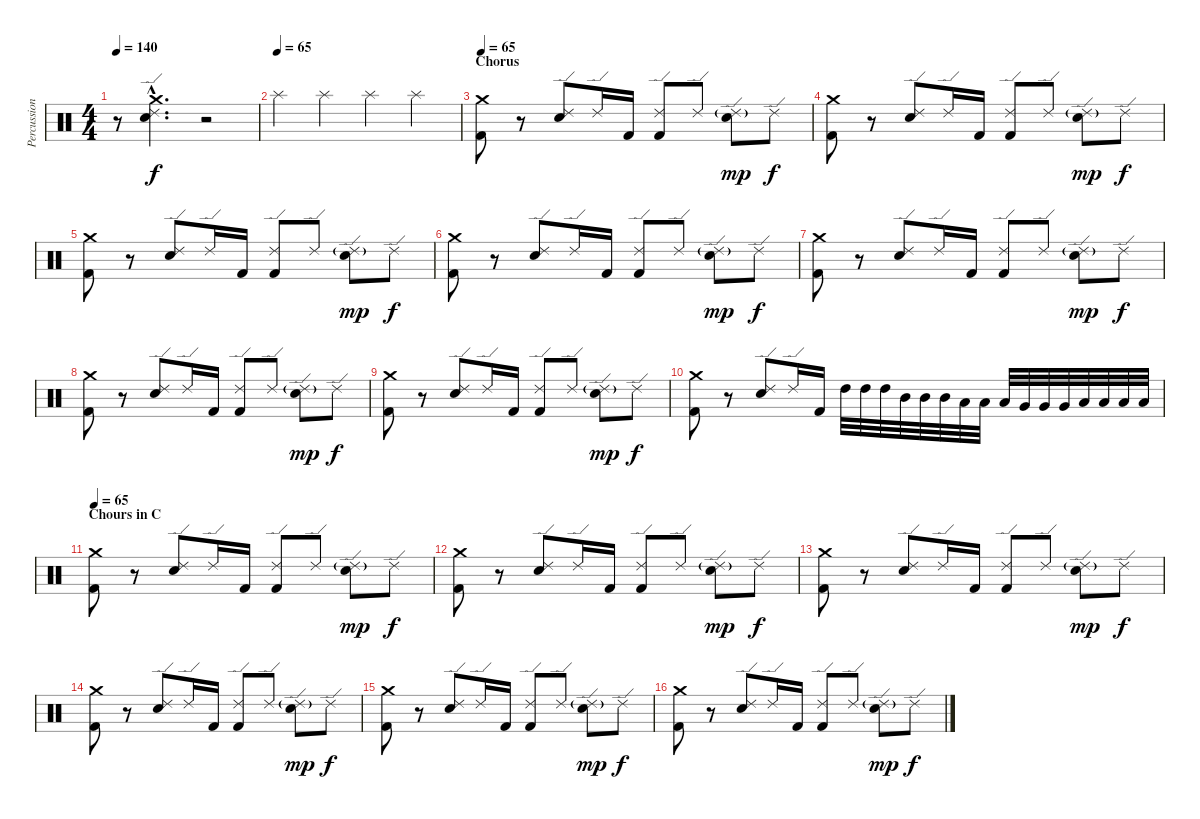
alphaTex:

\track ("Percussion" "Percussion") {instrument percussion}
\staff {score}
\articulation defaults
\ts (4 4)
\tempo 140
\clef neutral
\ks c
r.8{dy f} ("Crash medium (hit)"{hac} "Ride (edge) 2"{hac} "Snare (hit) 2"{hac}).4{d} r.2 |
\tempo (65)
"Splash (hit)".4 "Splash (hit)".4 "Splash (hit)".4 "Splash (hit)".4 |
\section ("" "Chorus")
\tempo 65
("Crash medium (hit)" "Kick (hit) 2").8 r.8 ("Ride (edge) 2" "Snare (hit) 2").8 "Ride (edge) 2".16 "Kick (hit) 2".16 ("Ride (edge) 2" "Kick (hit) 2").8 "Ride (edge) 2".8 ("Ride (edge) 2"{g} "Snare (hit) 2").8{dy mp} "Ride (edge) 2".8{dy f} |
("Crash medium (hit)" "Kick (hit) 2").8 r.8 ("Ride (edge) 2" "Snare (hit) 2").8 "Ride (edge) 2".16 "Kick (hit) 2".16 ("Ride (edge) 2" "Kick (hit) 2").8 "Ride (edge) 2".8 ("Ride (edge) 2"{g} "Snare (hit) 2").8{dy mp} "Ride (edge) 2".8{dy f} |
("Crash medium (hit)" "Kick (hit) 2").8 r.8 ("Ride (edge) 2" "Snare (hit) 2").8 "Ride (edge) 2".16 "Kick (hit) 2".16 ("Ride (edge) 2" "Kick (hit) 2").8 "Ride (edge) 2".8 ("Ride (edge) 2"{g} "Snare (hit) 2").8{dy mp} "Ride (edge) 2".8{dy f} |
("Crash medium (hit)" "Kick (hit) 2").8 r.8 ("Ride (edge) 2" "Snare (hit) 2").8 "Ride (edge) 2".16 "Kick (hit) 2".16 ("Ride (edge) 2" "Kick (hit) 2").8 "Ride (edge) 2".8 ("Ride (edge) 2"{g} "Snare (hit) 2").8{dy mp} "Ride (edge) 2".8{dy f} |
("Crash medium (hit)" "Kick (hit) 2").8 r.8 ("Ride (edge) 2" "Snare (hit) 2").8 "Ride (edge) 2".16 "Kick (hit) 2".16 ("Ride (edge) 2" "Kick (hit) 2").8 "Ride (edge) 2".8 ("Ride (edge) 2"{g} "Snare (hit) 2").8{dy mp} "Ride (edge) 2".8{dy f} |
("Crash medium (hit)" "Kick (hit) 2").8 r.8 ("Ride (edge) 2" "Snare (hit) 2").8 "Ride (edge) 2".16 "Kick (hit) 2".16 ("Ride (edge) 2" "Kick (hit) 2").8 "Ride (edge) 2".8 ("Ride (edge) 2"{g} "Snare (hit) 2").8{dy mp} "Ride (edge) 2".8{dy f} |
("Crash medium (hit)" "Kick (hit) 2").8 r.8 ("Ride (edge) 2" "Snare (hit) 2").8 "Ride (edge) 2".16 "Kick (hit) 2".16 ("Ride (edge) 2" "Kick (hit) 2").8 "Ride (edge) 2".8 ("Ride (edge) 2"{g} "Snare (hit) 2").8{dy mp} "Ride (edge) 2".8{dy f} |
("Crash medium (hit)" "Kick (hit) 2").8 r.8 ("Ride (edge) 2" "Snare (hit) 2").8 "Ride (edge) 2".16 "Kick (hit) 2".16 "High Tom (hit)".32 "High Tom (hit)".32 "High Tom (hit)".32 "Mid Tom (hit)".32 "Mid Tom (hit)".32 "Mid Tom (hit)".32 "Low Tom (hit)".32 "Low Tom (hit)".32 "Low Tom (hit)".32 "Very Low Tom (hit)".32 "Very Low Tom (hit)".32 "Very Low Tom (hit)".32 "Low Floor Tom (hit)".32 "Low Floor Tom (hit)".32 "Low Floor Tom (hit)".32 "Low Floor Tom (hit)".32 |
\section ("" "Chours in C")
\tempo 65
("Crash medium (hit)" "Kick (hit) 2").8 r.8 ("Ride (edge) 2" "Snare (hit) 2").8 "Ride (edge) 2".16 "Kick (hit) 2".16 ("Ride (edge) 2" "Kick (hit) 2").8 "Ride (edge) 2".8 ("Ride (edge) 2"{g} "Snare (hit) 2").8{dy mp} "Ride (edge) 2".8{dy f} |
("Crash medium (hit)" "Kick (hit) 2").8 r.8 ("Ride (edge) 2" "Snare (hit) 2").8 "Ride (edge) 2".16 "Kick (hit) 2".16 ("Ride (edge) 2" "Kick (hit) 2").8 "Ride (edge) 2".8 ("Ride (edge) 2"{g} "Snare (hit) 2").8{dy mp} "Ride (edge) 2".8{dy f} |
("Crash medium (hit)" "Kick (hit) 2").8 r.8 ("Ride (edge) 2" "Snare (hit) 2").8 "Ride (edge) 2".16 "Kick (hit) 2".16 ("Ride (edge) 2" "Kick (hit) 2").8 "Ride (edge) 2".8 ("Ride (edge) 2"{g} "Snare (hit) 2").8{dy mp} "Ride (edge) 2".8{dy f} |
("Crash medium (hit)" "Kick (hit) 2").8 r.8 ("Ride (edge) 2" "Snare (hit) 2").8 "Ride (edge) 2".16 "Kick (hit) 2".16 ("Ride (edge) 2" "Kick (hit) 2").8 "Ride (edge) 2".8 ("Ride (edge) 2"{g} "Snare (hit) 2").8{dy mp} "Ride (edge) 2".8{dy f} |
("Crash medium (hit)" "Kick (hit) 2").8 r.8 ("Ride (edge) 2" "Snare (hit) 2").8 "Ride (edge) 2".16 "Kick (hit) 2".16 ("Ride (edge) 2" "Kick (hit) 2").8 "Ride (edge) 2".8 ("Ride (edge) 2"{g} "Snare (hit) 2").8{dy mp} "Ride (edge) 2".8{dy f} |
("Crash medium (hit)" "Kick (hit) 2").8 r.8 ("Ride (edge) 2" "Snare (hit) 2").8 "Ride (edge) 2".16 "Kick (hit) 2".16 ("Ride (edge) 2" "Kick (hit) 2").8 "Ride (edge) 2".8 ("Ride (edge) 2"{g} "Snare (hit) 2").8{dy mp} "Ride (edge) 2".8{dy f}
